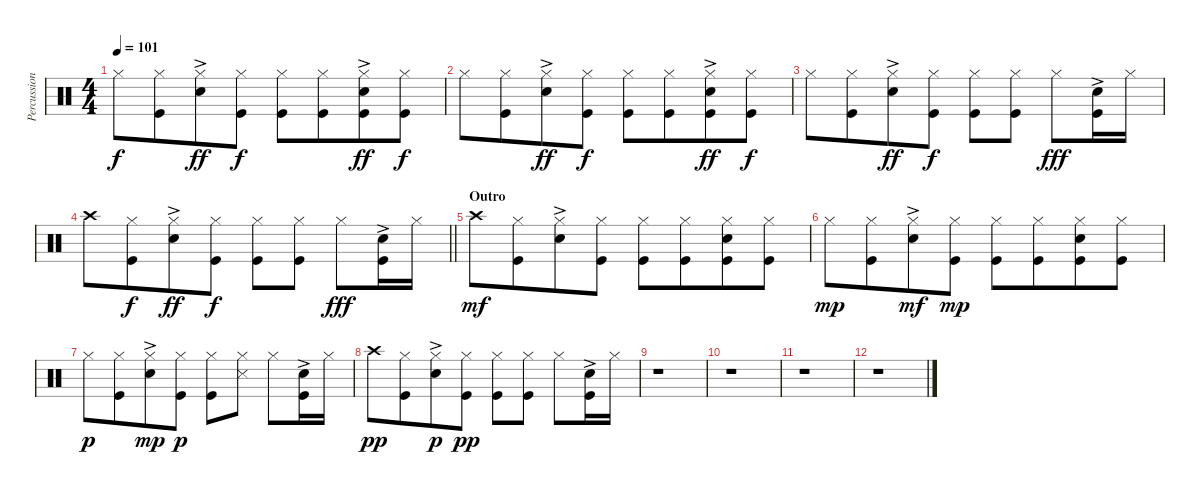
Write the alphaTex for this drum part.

\track ("Percussion" "Percussion") {instrument percussion}
\staff {score}
\articulation defaults
\ts (4 4)
\tempo 101
\clef neutral
\ks c "Hi-Hat (closed)".8{dy f}
("Hi-Hat (closed)" "Kick (hit)").8{beam merge} ("Hi-Hat (closed)" "Snare (hit) 2"{ac}).8{dy ff} ("Hi-Hat (closed)" "Kick (hit)").8{dy f} ("Hi-Hat (closed)" "Kick (hit)").8 ("Hi-Hat (closed)" "Kick (hit)").8{beam merge} ("Hi-Hat (closed)" "Snare (hit) 2"{ac} "Kick (hit)").8{dy ff} ("Hi-Hat (closed)" "Kick (hit)").8{dy f} |
"Hi-Hat (closed)".8 ("Hi-Hat (closed)" "Kick (hit)").8{beam merge} ("Hi-Hat (closed)" "Snare (hit) 2"{ac}).8{dy ff} ("Hi-Hat (closed)" "Kick (hit)").8{dy f} ("Hi-Hat (closed)" "Kick (hit)").8 ("Hi-Hat (closed)" "Kick (hit)").8{beam merge} ("Hi-Hat (closed)" "Snare (hit) 2"{ac} "Kick (hit)").8{dy ff} ("Hi-Hat (closed)" "Kick (hit)").8{dy f} |
"Hi-Hat (closed)".8 ("Hi-Hat (closed)" "Kick (hit)").8{beam merge} ("Hi-Hat (closed)" "Snare (hit) 2"{ac}).8{dy ff} ("Hi-Hat (closed)" "Kick (hit)").8{dy f} ("Hi-Hat (closed)" "Kick (hit)").8 ("Hi-Hat (closed)" "Kick (hit)").8 "Hi-Hat (closed)".8{dy fff} ("Snare (hit) 2"{ac} "Kick (hit)").16 "Hi-Hat (closed)".16 |
\barLineRight lightlight "Crash high (hit)".8
("Hi-Hat (closed)" "Kick (hit)").8{dy f beam merge} ("Hi-Hat (closed)" "Snare (hit) 2"{ac}).8{dy ff} ("Hi-Hat (closed)" "Kick (hit)").8{dy f} ("Hi-Hat (closed)" "Kick (hit)").8 ("Hi-Hat (closed)" "Kick (hit)").8 "Hi-Hat (closed)".8{dy fff} ("Snare (hit) 2"{ac} "Kick (hit)").16 "Hi-Hat (closed)".16 |
\section ("" "Outro")
"Crash high (hit)".8{dy mf} ("Hi-Hat (closed)" "Kick (hit)").8{beam merge} ("Hi-Hat (closed)" "Snare (hit) 2"{ac}).8 ("Hi-Hat (closed)" "Kick (hit)").8 ("Hi-Hat (closed)" "Kick (hit)").8 ("Hi-Hat (closed)" "Kick (hit)").8{beam merge} ("Hi-Hat (closed)" "Snare (hit) 2" "Kick (hit)").8 ("Hi-Hat (closed)" "Kick (hit)").8 |
"Hi-Hat (closed)".8{dy mp} ("Hi-Hat (closed)" "Kick (hit)").8{beam merge} ("Hi-Hat (closed)" "Snare (hit) 2"{ac}).8{dy mf} ("Hi-Hat (closed)" "Kick (hit)").8{dy mp} ("Hi-Hat (closed)" "Kick (hit)").8 ("Hi-Hat (closed)" "Kick (hit)").8{beam merge} ("Hi-Hat (closed)" "Snare (hit) 2" "Kick (hit)").8 ("Hi-Hat (closed)" "Kick (hit)").8 |
"Hi-Hat (closed)".8{dy p} ("Hi-Hat (closed)" "Kick (hit)").8{beam merge} ("Hi-Hat (closed)" "Snare (hit) 2"{ac}).8{dy mp} ("Hi-Hat (closed)" "Kick (hit)").8{dy p} ("Hi-Hat (closed)" "Kick (hit)").8 ("Hi-Hat (closed)" "Metronome (hit)").8 "Hi-Hat (closed)".8 ("Snare (hit) 2"{ac} "Kick (hit)").16 "Hi-Hat (closed)".16 |
"Crash high (hit)".8{dy pp} ("Hi-Hat (closed)" "Kick (hit)").8{beam merge} ("Hi-Hat (closed)" "Snare (hit) 2"{ac}).8{dy p} ("Hi-Hat (closed)" "Kick (hit)").8{dy pp} ("Hi-Hat (closed)" "Kick (hit)").8 ("Hi-Hat (closed)" "Kick (hit)").8 "Hi-Hat (closed)".8 ("Snare (hit) 2"{ac} "Kick (hit)").16 "Hi-Hat (closed)".16 |
r.1 |
r.1 |
r.1 |
r.1
